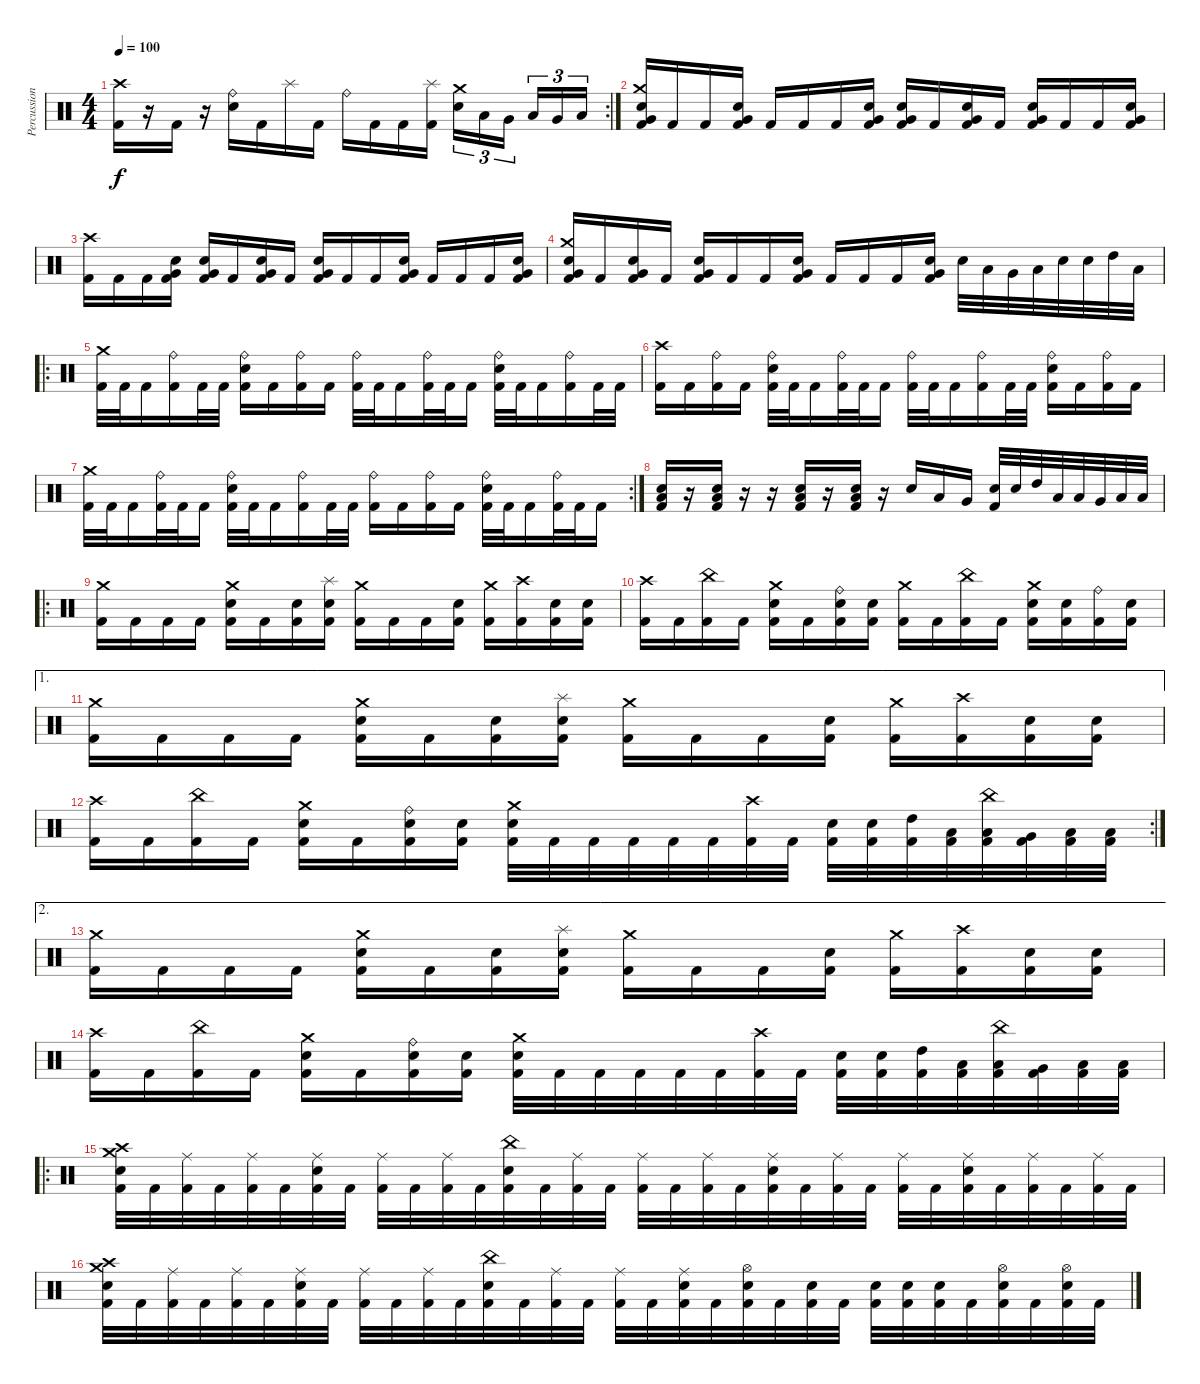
\track ("Percussion" "Percussion") {mute instrument percussion}
\staff {score}
\articulation defaults
\rc 2
\ts (4 4)
\tempo 100
\clef neutral
\ks c
("Crash high (hit)" "Kick (hit) 2").16{dy f} r.16 "Kick (hit) 2".16 r.16 ("Ride (bell)" "Electric Snare (hit)").16 "Kick (hit) 2".16 "Splash (hit)".16 "Kick (hit) 2".16 "Ride (bell)".16 "Kick (hit) 2".16 "Kick (hit) 2".16 ("Splash (hit)" "Kick (hit) 2").16 ("Crash medium (hit)" "Electric Snare (hit)").16{tu (3 2)} "Low Tom (hit)".16{tu (3 2)} "Very Low Tom (hit)".16{tu (3 2) beam splitsecondary} "Low Tom (hit)".16{tu (3 2)} "Very Low Tom (hit)".16{tu (3 2)} "Low Floor Tom (hit)".16{tu (3 2)} |
("Crash medium (hit)" "Very Low Tom (hit)" "Electric Snare (hit)" "Kick (hit) 2").16 "Kick (hit) 2".16 "Kick (hit) 2".16 ("Very Low Tom (hit)" "Electric Snare (hit)" "Kick (hit) 2").16 "Kick (hit) 2".16 "Kick (hit) 2".16 "Kick (hit) 2".16 ("Very Low Tom (hit)" "Electric Snare (hit)" "Kick (hit) 2").16 ("Very Low Tom (hit)" "Electric Snare (hit)" "Kick (hit) 2").16 "Kick (hit) 2".16 ("Very Low Tom (hit)" "Electric Snare (hit)" "Kick (hit) 2").16 "Kick (hit) 2".16 ("Very Low Tom (hit)" "Electric Snare (hit)" "Kick (hit) 2").16 "Kick (hit) 2".16 "Kick (hit) 2".16 ("Very Low Tom (hit)" "Electric Snare (hit)" "Kick (hit) 2").16 |
("Crash high (hit)" "Kick (hit) 2").16 "Kick (hit) 2".16 "Kick (hit) 2".16 ("Very Low Tom (hit)" "Electric Snare (hit)" "Kick (hit) 2").16 ("Very Low Tom (hit)" "Electric Snare (hit)" "Kick (hit) 2").16 "Kick (hit) 2".16 ("Very Low Tom (hit)" "Electric Snare (hit)" "Kick (hit) 2").16 "Kick (hit) 2".16 ("Very Low Tom (hit)" "Electric Snare (hit)" "Kick (hit) 2").16 "Kick (hit) 2".16 "Kick (hit) 2".16 ("Very Low Tom (hit)" "Electric Snare (hit)" "Kick (hit) 2").16 "Kick (hit) 2".16 "Kick (hit) 2".16 "Kick (hit) 2".16 ("Very Low Tom (hit)" "Electric Snare (hit)" "Kick (hit) 2").16 |
("Crash medium (hit)" "Very Low Tom (hit)" "Electric Snare (hit)" "Kick (hit) 2").16 "Kick (hit) 2".16 ("Very Low Tom (hit)" "Electric Snare (hit)" "Kick (hit) 2").16 "Kick (hit) 2".16 ("Very Low Tom (hit)" "Electric Snare (hit)" "Kick (hit) 2").16 "Kick (hit) 2".16 "Kick (hit) 2".16 ("Very Low Tom (hit)" "Electric Snare (hit)" "Kick (hit) 2").16 "Kick (hit) 2".16 "Kick (hit) 2".16 "Kick (hit) 2".16 ("Very Low Tom (hit)" "Electric Snare (hit)" "Kick (hit) 2").16 "Electric Snare (hit)".32 "Low Tom (hit)".32 "Very Low Tom (hit)".32 "Low Floor Tom (hit)".32 "Electric Snare (hit)".32 "Electric Snare (hit)".32 "High Tom (hit)".32 "Low Tom (hit)".32 |
\ro
("Crash medium (hit)" "Kick (hit) 2").32 "Kick (hit) 2".32 "Kick (hit) 2".16 ("Ride (bell)" "Kick (hit) 2").16 "Kick (hit) 2".32 "Kick (hit) 2".32 ("Ride (bell)" "Electric Snare (hit)" "Kick (hit) 2").16 "Kick (hit) 2".16 ("Ride (bell)" "Kick (hit) 2").16 "Kick (hit) 2".16 ("Ride (bell)" "Kick (hit) 2").32 "Kick (hit) 2".32 "Kick (hit) 2".16 ("Ride (bell)" "Kick (hit) 2").32 "Kick (hit) 2".32 "Kick (hit) 2".16 ("Ride (bell)" "Electric Snare (hit)" "Kick (hit) 2").32 "Kick (hit) 2".32 "Kick (hit) 2".16 ("Ride (bell)" "Kick (hit) 2").16 "Kick (hit) 2".32 "Kick (hit) 2".32 |
("Crash high (hit)" "Kick (hit) 2").16 "Kick (hit) 2".16 ("Ride (bell)" "Kick (hit) 2").16 "Kick (hit) 2".16 ("Ride (bell)" "Electric Snare (hit)" "Kick (hit) 2").32 "Kick (hit) 2".32 "Kick (hit) 2".16 ("Ride (bell)" "Kick (hit) 2").32 "Kick (hit) 2".32 "Kick (hit) 2".16 ("Ride (bell)" "Kick (hit) 2").32 "Kick (hit) 2".32 "Kick (hit) 2".16 ("Ride (bell)" "Kick (hit) 2").16 "Kick (hit) 2".32 "Kick (hit) 2".32 ("Ride (bell)" "Electric Snare (hit)" "Kick (hit) 2").16 "Kick (hit) 2".16 ("Ride (bell)" "Kick (hit) 2").16 "Kick (hit) 2".16 |
\rc 2
("Crash medium (hit)" "Kick (hit) 2").32 "Kick (hit) 2".32 "Kick (hit) 2".16 ("Ride (bell)" "Kick (hit) 2").32 "Kick (hit) 2".32 "Kick (hit) 2".16 ("Ride (bell)" "Electric Snare (hit)" "Kick (hit) 2").32 "Kick (hit) 2".32 "Kick (hit) 2".16 ("Ride (bell)" "Kick (hit) 2").16 "Kick (hit) 2".32 "Kick (hit) 2".32 ("Ride (bell)" "Kick (hit) 2").16 "Kick (hit) 2".16 ("Ride (bell)" "Kick (hit) 2").16 "Kick (hit) 2".16 ("Ride (bell)" "Electric Snare (hit)" "Kick (hit) 2").32 "Kick (hit) 2".32 "Kick (hit) 2".16 ("Ride (bell)" "Kick (hit) 2").32 "Kick (hit) 2".32 "Kick (hit) 2".16 |
("Low Tom (hit)" "Electric Snare (hit)" "Kick (hit) 2").16 r.16 ("Low Tom (hit)" "Electric Snare (hit)" "Kick (hit) 2").16 r.16 r.16 ("Low Tom (hit)" "Electric Snare (hit)" "Kick (hit) 2").16 r.16 ("Low Tom (hit)" "Electric Snare (hit)" "Kick (hit) 2").16 r.16 "Electric Snare (hit)".16 "Low Tom (hit)".16 "Very Low Tom (hit)".16 ("Electric Snare (hit)" "Kick (hit) 2").32 "Electric Snare (hit)".32 "High Tom (hit)".32 "Low Tom (hit)".32 "Low Tom (hit)".32 "Very Low Tom (hit)".32 "Low Floor Tom (hit)".32 "Low Floor Tom (hit)".32 |
\ro
("Crash medium (hit)" "Kick (hit) 2").16 "Kick (hit) 2".16 "Kick (hit) 2".16 "Kick (hit) 2".16 ("Crash medium (hit)" "Electric Snare (hit)" "Kick (hit) 2").16 "Kick (hit) 2".16 ("Electric Snare (hit)" "Kick (hit) 2").16 ("Splash (hit)" "Electric Snare (hit)" "Kick (hit) 2").16 ("Crash medium (hit)" "Kick (hit) 2").16 "Kick (hit) 2".16 "Kick (hit) 2".16 ("Electric Snare (hit)" "Kick (hit) 2").16 ("Crash medium (hit)" "Kick (hit) 2").16 ("Crash high (hit)" "Kick (hit) 2").16 ("Electric Snare (hit)" "Kick (hit) 2").16 ("Electric Snare (hit)" "Kick (hit) 2").16 |
("Crash high (hit)" "Kick (hit) 2").16 "Kick (hit) 2".16 ("China (hit)" "Kick (hit) 2").16 "Kick (hit) 2".16 ("Crash medium (hit)" "Electric Snare (hit)" "Kick (hit) 2").16 "Kick (hit) 2".16 ("Ride (bell)" "Electric Snare (hit)" "Kick (hit) 2").16 ("Electric Snare (hit)" "Kick (hit) 2").16 ("Crash medium (hit)" "Kick (hit) 2").16 "Kick (hit) 2".16 ("China (hit)" "Kick (hit) 2").16 "Kick (hit) 2".16 ("Crash medium (hit)" "Electric Snare (hit)" "Kick (hit) 2").16 ("Electric Snare (hit)" "Kick (hit) 2").16 ("Ride (bell)" "Kick (hit) 2").16 ("Electric Snare (hit)" "Kick (hit) 2").16 |
\ae 1
("Crash medium (hit)" "Kick (hit) 2").16 "Kick (hit) 2".16 "Kick (hit) 2".16 "Kick (hit) 2".16 ("Crash medium (hit)" "Electric Snare (hit)" "Kick (hit) 2").16 "Kick (hit) 2".16 ("Electric Snare (hit)" "Kick (hit) 2").16 ("Splash (hit)" "Electric Snare (hit)" "Kick (hit) 2").16 ("Crash medium (hit)" "Kick (hit) 2").16 "Kick (hit) 2".16 "Kick (hit) 2".16 ("Electric Snare (hit)" "Kick (hit) 2").16 ("Crash medium (hit)" "Kick (hit) 2").16 ("Crash high (hit)" "Kick (hit) 2").16 ("Electric Snare (hit)" "Kick (hit) 2").16 ("Electric Snare (hit)" "Kick (hit) 2").16 |
\rc 2
("Crash high (hit)" "Kick (hit) 2").16 "Kick (hit) 2".16 ("China (hit)" "Kick (hit) 2").16 "Kick (hit) 2".16 ("Crash medium (hit)" "Electric Snare (hit)" "Kick (hit) 2").16 "Kick (hit) 2".16 ("Ride (bell)" "Electric Snare (hit)" "Kick (hit) 2").16 ("Electric Snare (hit)" "Kick (hit) 2").16 ("Crash medium (hit)" "Electric Snare (hit)" "Kick (hit) 2").32 "Kick (hit) 2".32 "Kick (hit) 2".32 "Kick (hit) 2".32 "Kick (hit) 2".32 "Kick (hit) 2".32 ("Crash high (hit)" "Kick (hit) 2").32 "Kick (hit) 2".32 ("Electric Snare (hit)" "Kick (hit) 2").32 ("Electric Snare (hit)" "Kick (hit) 2").32 ("High Tom (hit)" "Kick (hit) 2").32 ("Low Tom (hit)" "Kick (hit) 2").32 ("China (hit)" "Low Tom (hit)" "Kick (hit) 2").32 ("Very Low Tom (hit)" "Kick (hit) 2").32 ("Low Floor Tom (hit)" "Kick (hit) 2").32 ("Low Floor Tom (hit)" "Kick (hit) 2").32 |
\ae 2
("Crash medium (hit)" "Kick (hit) 2").16 "Kick (hit) 2".16 "Kick (hit) 2".16 "Kick (hit) 2".16 ("Crash medium (hit)" "Electric Snare (hit)" "Kick (hit) 2").16 "Kick (hit) 2".16 ("Electric Snare (hit)" "Kick (hit) 2").16 ("Splash (hit)" "Electric Snare (hit)" "Kick (hit) 2").16 ("Crash medium (hit)" "Kick (hit) 2").16 "Kick (hit) 2".16 "Kick (hit) 2".16 ("Electric Snare (hit)" "Kick (hit) 2").16 ("Crash medium (hit)" "Kick (hit) 2").16 ("Crash high (hit)" "Kick (hit) 2").16 ("Electric Snare (hit)" "Kick (hit) 2").16 ("Electric Snare (hit)" "Kick (hit) 2").16 |
("Crash high (hit)" "Kick (hit) 2").16 "Kick (hit) 2".16 ("China (hit)" "Kick (hit) 2").16 "Kick (hit) 2".16 ("Crash medium (hit)" "Electric Snare (hit)" "Kick (hit) 2").16 "Kick (hit) 2".16 ("Ride (bell)" "Electric Snare (hit)" "Kick (hit) 2").16 ("Electric Snare (hit)" "Kick (hit) 2").16 ("Crash medium (hit)" "Electric Snare (hit)" "Kick (hit) 2").32 "Kick (hit) 2".32 "Kick (hit) 2".32 "Kick (hit) 2".32 "Kick (hit) 2".32 "Kick (hit) 2".32 ("Crash high (hit)" "Kick (hit) 2").32 "Kick (hit) 2".32 ("Electric Snare (hit)" "Kick (hit) 2").32 ("Electric Snare (hit)" "Kick (hit) 2").32 ("High Tom (hit)" "Kick (hit) 2").32 ("Low Tom (hit)" "Kick (hit) 2").32 ("China (hit)" "Low Tom (hit)" "Kick (hit) 2").32 ("Very Low Tom (hit)" "Kick (hit) 2").32 ("Low Floor Tom (hit)" "Kick (hit) 2").32 ("Low Floor Tom (hit)" "Kick (hit) 2").32 |
\ro
("Crash high (hit)" "Crash medium (hit)" "Electric Snare (hit)" "Kick (hit) 2").32 "Kick (hit) 2".32 ("Ride (middle)" "Kick (hit) 2").32 "Kick (hit) 2".32 ("Ride (middle)" "Kick (hit) 2").32 "Kick (hit) 2".32 ("Ride (middle)" "Electric Snare (hit)" "Kick (hit) 2").32 "Kick (hit) 2".32 ("Ride (middle)" "Kick (hit) 2").32 "Kick (hit) 2".32 ("Ride (middle)" "Kick (hit) 2").32 "Kick (hit) 2".32 ("China (hit)" "Electric Snare (hit)" "Kick (hit) 2").32 "Kick (hit) 2".32 ("Ride (middle)" "Kick (hit) 2").32 "Kick (hit) 2".32 ("Ride (middle)" "Kick (hit) 2").32 "Kick (hit) 2".32 ("Ride (middle)" "Kick (hit) 2").32 "Kick (hit) 2".32 ("Ride (middle)" "Electric Snare (hit)" "Kick (hit) 2").32 "Kick (hit) 2".32 ("Ride (middle)" "Kick (hit) 2").32 "Kick (hit) 2".32 ("Ride (middle)" "Kick (hit) 2").32 "Kick (hit) 2".32 ("Ride (middle)" "Electric Snare (hit)" "Kick (hit) 2").32 "Kick (hit) 2".32 ("Ride (middle)" "Kick (hit) 2").32 "Kick (hit) 2".32 ("Ride (middle)" "Kick (hit) 2").32 "Kick (hit) 2".32 |
("Crash high (hit)" "Crash medium (hit)" "Electric Snare (hit)" "Kick (hit) 2").32 "Kick (hit) 2".32 ("Ride (middle)" "Kick (hit) 2").32 "Kick (hit) 2".32 ("Ride (middle)" "Kick (hit) 2").32 "Kick (hit) 2".32 ("Ride (middle)" "Electric Snare (hit)" "Kick (hit) 2").32 "Kick (hit) 2".32 ("Ride (middle)" "Kick (hit) 2").32 "Kick (hit) 2".32 ("Ride (middle)" "Kick (hit) 2").32 "Kick (hit) 2".32 ("China (hit)" "Electric Snare (hit)" "Kick (hit) 2").32 "Kick (hit) 2".32 ("Ride (middle)" "Kick (hit) 2").32 "Kick (hit) 2".32 ("Ride (middle)" "Kick (hit) 2").32 "Kick (hit) 2".32 ("Ride (middle)" "Electric Snare (hit)" "Kick (hit) 2").32 "Kick (hit) 2".32 ("Hi-Hat (open)" "Electric Snare (hit)" "Kick (hit) 2").32 "Kick (hit) 2".32 ("Electric Snare (hit)" "Kick (hit) 2").32 "Kick (hit) 2".32 ("Electric Snare (hit)" "Kick (hit) 2").32 ("Electric Snare (hit)" "Kick (hit) 2").32 ("Electric Snare (hit)" "Kick (hit) 2").32 "Kick (hit) 2".32 ("Hi-Hat (open)" "Electric Snare (hit)" "Kick (hit) 2").32 "Kick (hit) 2".32 ("Hi-Hat (open)" "Electric Snare (hit)" "Kick (hit) 2").32 "Kick (hit) 2".32
